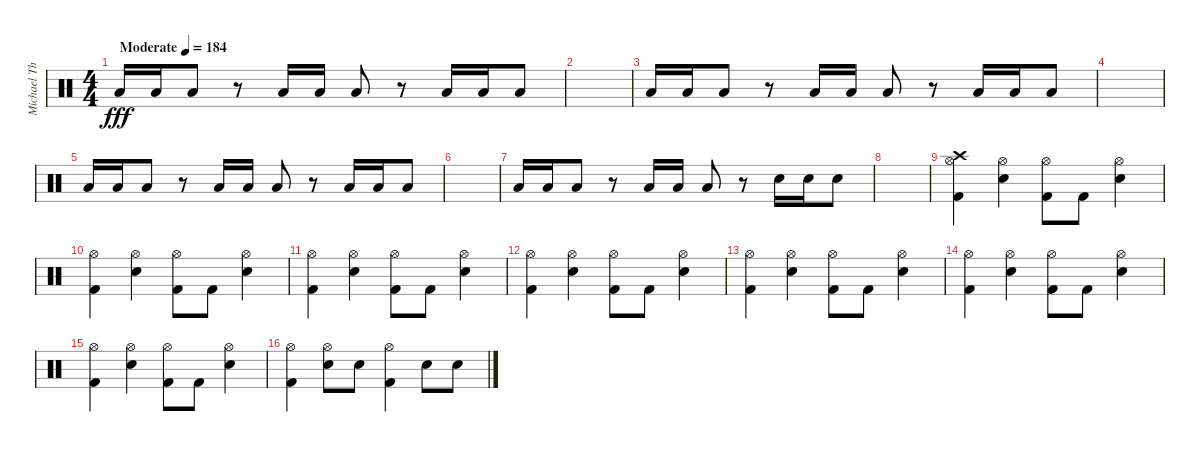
\track ("Michael Thomas - Drums" "Michael Th") {instrument percussion}
\staff {score}
\articulation defaults
\ts (4 4)
\tempo (184 "Moderate")
\clef neutral
\ks c "Low Floor Tom (hit)".16{dy fff} "Low Floor Tom (hit)".16 "Low Floor Tom (hit)".8
r.8 "Low Floor Tom (hit)".16 "Low Floor Tom (hit)".16 "Low Floor Tom (hit)".8 r.8 "Low Floor Tom (hit)".16 "Low Floor Tom (hit)".16 "Low Floor Tom (hit)".8 |
|
"Low Floor Tom (hit)".16 "Low Floor Tom (hit)".16 "Low Floor Tom (hit)".8 r.8 "Low Floor Tom (hit)".16 "Low Floor Tom (hit)".16 "Low Floor Tom (hit)".8 r.8 "Low Floor Tom (hit)".16 "Low Floor Tom (hit)".16 "Low Floor Tom (hit)".8 |
|
"Low Floor Tom (hit)".16 "Low Floor Tom (hit)".16 "Low Floor Tom (hit)".8 r.8 "Low Floor Tom (hit)".16 "Low Floor Tom (hit)".16 "Low Floor Tom (hit)".8 r.8 "Low Floor Tom (hit)".16 "Low Floor Tom (hit)".16 "Low Floor Tom (hit)".8 |
|
"Low Floor Tom (hit)".16 "Low Floor Tom (hit)".16 "Low Floor Tom (hit)".8 r.8 "Low Floor Tom (hit)".16 "Low Floor Tom (hit)".16 "Low Floor Tom (hit)".8 r.8 "Snare (hit) 2".16 "Snare (hit) 2".16 "Snare (hit) 2".8 |
|
("Crash high (hit)" "Hi-Hat (open)" "Kick (hit) 2").4 ("Hi-Hat (open)" "Snare (hit) 2").4 ("Hi-Hat (open)" "Kick (hit) 2").8 "Kick (hit) 2".8 ("Hi-Hat (open)" "Snare (hit) 2").4 |
("Hi-Hat (open)" "Kick (hit) 2").4 ("Hi-Hat (open)" "Snare (hit) 2").4 ("Hi-Hat (open)" "Kick (hit) 2").8 "Kick (hit) 2".8 ("Hi-Hat (open)" "Snare (hit) 2").4 |
("Hi-Hat (open)" "Kick (hit) 2").4 ("Hi-Hat (open)" "Snare (hit) 2").4 ("Hi-Hat (open)" "Kick (hit) 2").8 "Kick (hit) 2".8 ("Hi-Hat (open)" "Snare (hit) 2").4 |
("Hi-Hat (open)" "Kick (hit) 2").4 ("Hi-Hat (open)" "Snare (hit) 2").4 ("Hi-Hat (open)" "Kick (hit) 2").8 "Kick (hit) 2".8 ("Hi-Hat (open)" "Snare (hit) 2").4 |
("Hi-Hat (open)" "Kick (hit) 2").4 ("Hi-Hat (open)" "Snare (hit) 2").4 ("Hi-Hat (open)" "Kick (hit) 2").8 "Kick (hit) 2".8 ("Hi-Hat (open)" "Snare (hit) 2").4 |
("Hi-Hat (open)" "Kick (hit) 2").4 ("Hi-Hat (open)" "Snare (hit) 2").4 ("Hi-Hat (open)" "Kick (hit) 2").8 "Kick (hit) 2".8 ("Hi-Hat (open)" "Snare (hit) 2").4 |
("Hi-Hat (open)" "Kick (hit) 2").4 ("Hi-Hat (open)" "Snare (hit) 2").4 ("Hi-Hat (open)" "Kick (hit) 2").8 "Kick (hit) 2".8 ("Hi-Hat (open)" "Snare (hit) 2").4 |
("Hi-Hat (open)" "Kick (hit) 2").4 ("Hi-Hat (open)" "Snare (hit) 2").8 "Snare (hit) 2".8 ("Hi-Hat (open)" "Kick (hit) 2").4 "Snare (hit) 2".8 "Snare (hit) 2".8
